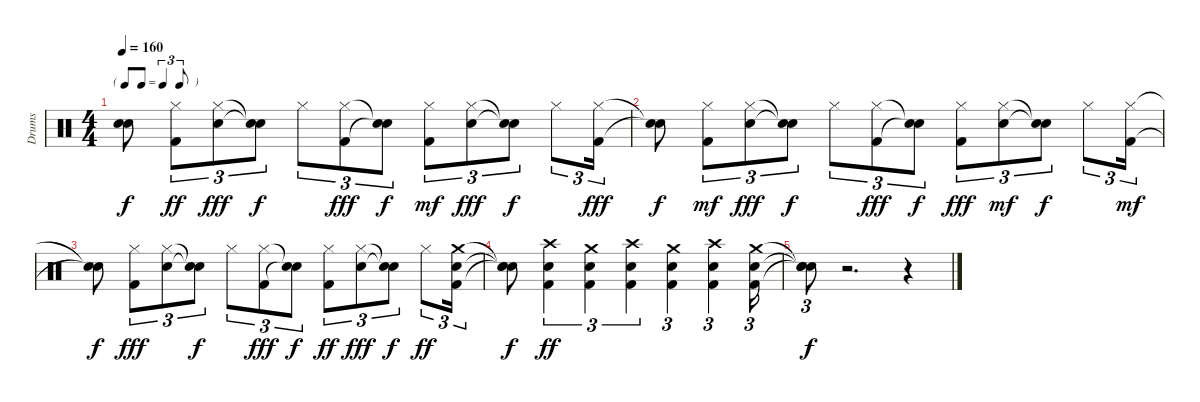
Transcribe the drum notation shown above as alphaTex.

\track ("Drums" "Drums") {instrument percussion}
\staff {score}
\articulation defaults
\ts (4 4)
\tf triplet8th
\tempo 160
\clef neutral
\ks c
("Snare (hit)"{t} "Snare (hit)"{t}).8{dy f} ("Kick (hit) 2" "Hi-Hat (closed)").8{tu (3 2) dy ff} ("Hi-Hat (closed)" "Electric Snare (hit)").8{tu (3 2) dy fff} ("Snare (hit)"{t} "Snare (hit)"{t}).8{tu (3 2) dy f} "Hi-Hat (closed)".8{tu (3 2)} ("Kick (hit) 2" "Hi-Hat (closed)").8{tu (3 2) dy fff} ("Snare (hit)"{t} "Snare (hit)"{t}).8{tu (3 2) dy f} ("Kick (hit) 2" "Hi-Hat (closed)").8{tu (3 2) dy mf} ("Electric Snare (hit)" "Hi-Hat (closed)").8{tu (3 2) dy fff} ("Snare (hit)"{t} "Snare (hit)"{t}).8{tu (3 2) dy f} "Hi-Hat (closed)".8{tu (3 2)} ("Kick (hit) 2" "Hi-Hat (closed)").16{tu (3 2) dy fff} |
("Snare (hit)"{t} "Snare (hit)"{t}).8{dy f} ("Kick (hit) 2" "Hi-Hat (closed)").8{tu (3 2) dy mf} ("Electric Snare (hit)" "Hi-Hat (closed)").8{tu (3 2) dy fff} ("Snare (hit)"{t} "Snare (hit)"{t}).8{tu (3 2) dy f} "Hi-Hat (closed)".8{tu (3 2)} ("Kick (hit) 2" "Hi-Hat (closed)").8{tu (3 2) dy fff} ("Snare (hit)"{t} "Snare (hit)"{t}).8{tu (3 2) dy f} ("Kick (hit) 2" "Hi-Hat (closed)").8{tu (3 2) dy fff} ("Electric Snare (hit)" "Hi-Hat (closed)").8{tu (3 2) dy mf} ("Snare (hit)"{t} "Snare (hit)"{t}).8{tu (3 2) dy f} "Hi-Hat (closed)".8{tu (3 2)} ("Kick (hit) 2" "Hi-Hat (closed)").16{tu (3 2) dy mf} |
("Snare (hit)"{t} "Snare (hit)"{t}).8{dy f} ("Kick (hit) 2" "Hi-Hat (closed)").8{tu (3 2) dy fff} ("Hi-Hat (closed)" "Electric Snare (hit)").8{tu (3 2)} ("Snare (hit)"{t} "Snare (hit)"{t}).8{tu (3 2) dy f} "Hi-Hat (closed)".8{tu (3 2)} ("Kick (hit) 2" "Hi-Hat (closed)").8{tu (3 2) dy fff} ("Snare (hit)"{t} "Snare (hit)"{t}).8{tu (3 2) dy f} ("Kick (hit) 2" "Hi-Hat (closed)").8{tu (3 2) dy ff} ("Hi-Hat (closed)" "Electric Snare (hit)").8{tu (3 2) dy fff} ("Snare (hit)"{t} "Snare (hit)"{t}).8{tu (3 2) dy f} "Hi-Hat (closed)".8{tu (3 2) dy ff} ("Kick (hit) 2" "Crash medium (hit)" "Electric Snare (hit)").16{tu (3 2)} |
("Snare (hit)"{t} "Snare (hit)"{t} "Snare (hit)"{t}).8{dy f} ("Kick (hit) 2" "Crash high (hit)" "Electric Snare (hit)").4{tu (3 2) dy ff} ("Kick (hit) 2" "Crash medium (hit)" "Electric Snare (hit)").4{tu (3 2)} ("Kick (hit) 2" "Crash high (hit)" "Electric Snare (hit)").4{tu (3 2)} ("Kick (hit) 2" "Crash medium (hit)" "Electric Snare (hit)").4{tu (3 2)} ("Kick (hit) 2" "Crash high (hit)" "Electric Snare (hit)").4{tu (3 2)} ("Kick (hit) 2" "Crash medium (hit)" "Electric Snare (hit)").16{tu (3 2)} |
("Snare (hit)"{t} "Snare (hit)"{t} "Snare (hit)"{t}).8{tu (3 2) dy f} r.2{d} r.4{tu (3 2)}
